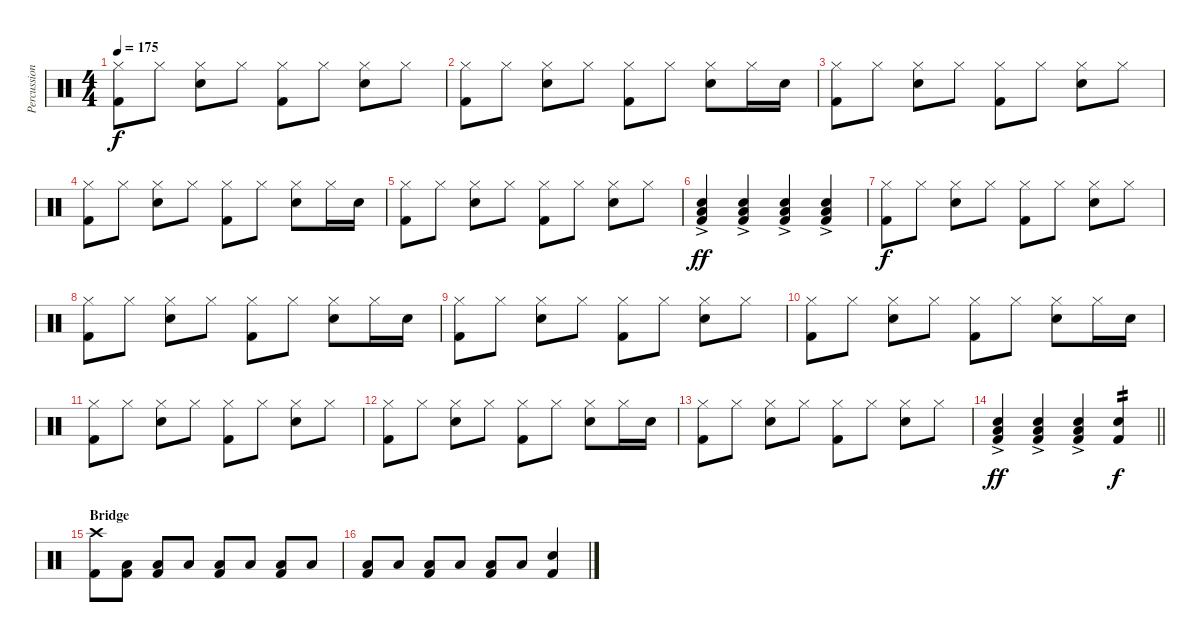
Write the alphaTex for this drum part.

\track ("Percussion" "Percussion") {instrument percussion}
\staff {score}
\articulation defaults
\ts (4 4)
\tempo 175
\clef neutral
\ks c
("Hi-Hat (closed)" "Kick (hit) 2").8{dy f} "Hi-Hat (closed)".8 ("Hi-Hat (closed)" "Snare (hit) 2").8 "Hi-Hat (closed)".8 ("Hi-Hat (closed)" "Kick (hit) 2").8 "Hi-Hat (closed)".8 ("Hi-Hat (closed)" "Snare (hit) 2").8 "Hi-Hat (closed)".8 |
("Hi-Hat (closed)" "Kick (hit) 2").8 "Hi-Hat (closed)".8 ("Hi-Hat (closed)" "Snare (hit) 2").8 "Hi-Hat (closed)".8 ("Hi-Hat (closed)" "Kick (hit) 2").8 "Hi-Hat (closed)".8 ("Hi-Hat (closed)" "Snare (hit) 2").8 "Hi-Hat (closed)".16 "Snare (hit) 2".16 |
("Hi-Hat (closed)" "Kick (hit) 2").8 "Hi-Hat (closed)".8 ("Hi-Hat (closed)" "Snare (hit) 2").8 "Hi-Hat (closed)".8 ("Hi-Hat (closed)" "Kick (hit) 2").8 "Hi-Hat (closed)".8 ("Hi-Hat (closed)" "Snare (hit) 2").8 "Hi-Hat (closed)".8 |
("Hi-Hat (closed)" "Kick (hit) 2").8 "Hi-Hat (closed)".8 ("Hi-Hat (closed)" "Snare (hit) 2").8 "Hi-Hat (closed)".8 ("Hi-Hat (closed)" "Kick (hit) 2").8 "Hi-Hat (closed)".8 ("Hi-Hat (closed)" "Snare (hit) 2").8 "Hi-Hat (closed)".16 "Snare (hit) 2".16 |
("Hi-Hat (closed)" "Kick (hit) 2").8 "Hi-Hat (closed)".8 ("Hi-Hat (closed)" "Snare (hit) 2").8 "Hi-Hat (closed)".8 ("Hi-Hat (closed)" "Kick (hit) 2").8 "Hi-Hat (closed)".8 ("Hi-Hat (closed)" "Snare (hit) 2").8 "Hi-Hat (closed)".8 |
("Snare (hit) 2"{ac} "Low Floor Tom (hit)" "Kick (hit) 2"{ac}).4{dy ff} ("Snare (hit) 2"{ac} "Low Floor Tom (hit)" "Kick (hit) 2"{ac}).4 ("Snare (hit) 2"{ac} "Low Floor Tom (hit)" "Kick (hit) 2"{ac}).4 ("Snare (hit) 2"{ac} "Low Floor Tom (hit)" "Kick (hit) 2"{ac}).4 |
("Hi-Hat (closed)" "Kick (hit) 2").8{dy f} "Hi-Hat (closed)".8 ("Hi-Hat (closed)" "Snare (hit) 2").8 "Hi-Hat (closed)".8 ("Hi-Hat (closed)" "Kick (hit) 2").8 "Hi-Hat (closed)".8 ("Hi-Hat (closed)" "Snare (hit) 2").8 "Hi-Hat (closed)".8 |
("Hi-Hat (closed)" "Kick (hit) 2").8 "Hi-Hat (closed)".8 ("Hi-Hat (closed)" "Snare (hit) 2").8 "Hi-Hat (closed)".8 ("Hi-Hat (closed)" "Kick (hit) 2").8 "Hi-Hat (closed)".8 ("Hi-Hat (closed)" "Snare (hit) 2").8 "Hi-Hat (closed)".16 "Snare (hit) 2".16 |
("Hi-Hat (closed)" "Kick (hit) 2").8 "Hi-Hat (closed)".8 ("Hi-Hat (closed)" "Snare (hit) 2").8 "Hi-Hat (closed)".8 ("Hi-Hat (closed)" "Kick (hit) 2").8 "Hi-Hat (closed)".8 ("Hi-Hat (closed)" "Snare (hit) 2").8 "Hi-Hat (closed)".8 |
("Hi-Hat (closed)" "Kick (hit) 2").8 "Hi-Hat (closed)".8 ("Hi-Hat (closed)" "Snare (hit) 2").8 "Hi-Hat (closed)".8 ("Hi-Hat (closed)" "Kick (hit) 2").8 "Hi-Hat (closed)".8 ("Hi-Hat (closed)" "Snare (hit) 2").8 "Hi-Hat (closed)".16 "Snare (hit) 2".16 |
("Hi-Hat (closed)" "Kick (hit) 2").8 "Hi-Hat (closed)".8 ("Hi-Hat (closed)" "Snare (hit) 2").8 "Hi-Hat (closed)".8 ("Hi-Hat (closed)" "Kick (hit) 2").8 "Hi-Hat (closed)".8 ("Hi-Hat (closed)" "Snare (hit) 2").8 "Hi-Hat (closed)".8 |
("Hi-Hat (closed)" "Kick (hit) 2").8 "Hi-Hat (closed)".8 ("Hi-Hat (closed)" "Snare (hit) 2").8 "Hi-Hat (closed)".8 ("Hi-Hat (closed)" "Kick (hit) 2").8 "Hi-Hat (closed)".8 ("Hi-Hat (closed)" "Snare (hit) 2").8 "Hi-Hat (closed)".16 "Snare (hit) 2".16 |
("Hi-Hat (closed)" "Kick (hit) 2").8 "Hi-Hat (closed)".8 ("Hi-Hat (closed)" "Snare (hit) 2").8 "Hi-Hat (closed)".8 ("Hi-Hat (closed)" "Kick (hit) 2").8 "Hi-Hat (closed)".8 ("Hi-Hat (closed)" "Snare (hit) 2").8 "Hi-Hat (closed)".8 |
\barLineRight lightlight
("Snare (hit) 2"{ac} "Low Floor Tom (hit)" "Kick (hit) 2"{ac}).4{dy ff} ("Snare (hit) 2"{ac} "Low Floor Tom (hit)" "Kick (hit) 2"{ac}).4 ("Snare (hit) 2"{ac} "Low Floor Tom (hit)" "Kick (hit) 2"{ac}).4 ("Snare (hit) 2" "Kick (hit) 2").4{tp 2 dy f} |
\section ("" "Bridge")
("Crash high (hit)" "Kick (hit) 2").8 ("Low Floor Tom (hit)" "Kick (hit) 2").8 ("Low Floor Tom (hit)" "Kick (hit) 2").8 "Low Floor Tom (hit)".8 ("Low Floor Tom (hit)" "Kick (hit) 2").8 "Low Floor Tom (hit)".8 ("Low Floor Tom (hit)" "Kick (hit) 2").8 "Low Floor Tom (hit)".8 |
("Low Floor Tom (hit)" "Kick (hit) 2").8 "Low Floor Tom (hit)".8 ("Low Floor Tom (hit)" "Kick (hit) 2").8 "Low Floor Tom (hit)".8 ("Low Floor Tom (hit)" "Kick (hit) 2").8 "Low Floor Tom (hit)".8 ("Snare (hit) 2" "Kick (hit) 2").4
